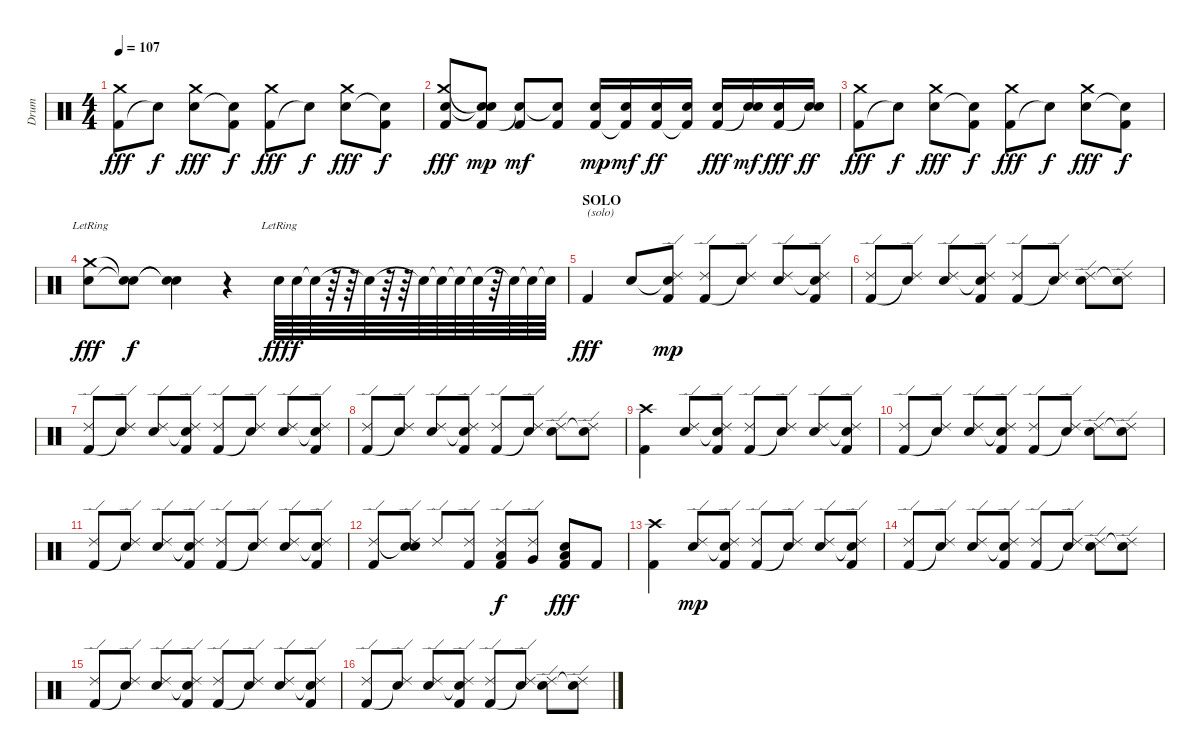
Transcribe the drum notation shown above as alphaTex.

\track ("Drum" "Drum") {instrument percussion}
\staff {score}
\articulation defaults
\ts (4 4)
\tempo 107
\clef neutral
\ks c
("Kick (hit) 2" "Crash medium (hit)").8{dy fff} "Snare (hit)"{t}.8{dy f} ("Electric Snare (hit)" "Crash medium (hit)").8{dy fff} ("Snare (hit)"{t} "Kick (hit) 2").8{dy f} ("Kick (hit) 2" "Crash medium (hit)").8{dy fff} "Snare (hit)"{t}.8{dy f} ("Electric Snare (hit)" "Crash medium (hit)").8{dy fff} ("Snare (hit)"{t} "Kick (hit) 2").8{dy f} |
("Electric Snare (hit)" "Kick (hit) 2" "Crash medium (hit)").8{txt "" dy fff} ("Snare (hit)"{t} "Kick (hit) 2" "Snare (hit)"{t}).8{dy mp} ("Kick (hit) 2" "Snare (hit)"{t}).8{dy mf} ("Kick (hit) 2" "Snare (hit)"{t}).8 ("Electric Snare (hit)" "Kick (hit) 2").16{dy mp} ("Electric Snare (hit)" "Kick (hit) 2"{t}).16{dy mf} ("Electric Snare (hit)" "Kick (hit) 2").16{dy ff} ("Electric Snare (hit)" "Kick (hit) 2"{t}).16 ("Electric Snare (hit)" "Kick (hit) 2").16{dy fff} ("Electric Snare (hit)" "Snare (hit)"{t}).16{dy mf} ("Electric Snare (hit)" "Kick (hit) 2").16{dy fff} ("Electric Snare (hit)" "Snare (hit)"{t}).16{dy ff} |
("Kick (hit) 2" "Crash medium (hit)").8{dy fff} "Snare (hit)"{t}.8{dy f} ("Electric Snare (hit)" "Crash medium (hit)").8{dy fff} ("Snare (hit)"{t} "Kick (hit) 2").8{dy f} ("Kick (hit) 2" "Crash medium (hit)").8{dy fff} "Snare (hit)"{t}.8{dy f} ("Electric Snare (hit)" "Crash medium (hit)").8{dy fff} ("Snare (hit)"{t} "Kick (hit) 2").8{dy f} |
\section ("" "")
("Electric Snare (hit)"{lr} "Crash medium (hit)"{lr}).8{txt "" dy fff} ("Snare (hit)"{t} "Snare (hit)"{t}).8{dy f} ("Snare (hit)"{t} "Snare (hit)"{t}).4 r.4 "Electric Snare (hit)"{lr}.64{dy fff} "Electric Snare (hit)".64{dy f} "Snare (hit)"{t}.64 r.64 r.64 "Snare (hit)"{t}.64 r.64 r.64 "Snare (hit)"{t}.64 "Snare (hit)"{t}.64 "Snare (hit)"{t}.64 "Snare (hit)"{t}.64 r.64 "Snare (hit)"{t}.64 "Snare (hit)"{t}.64 "Snare (hit)"{t}.64 |
\section ("" "SOLO")
"Kick (hit) 2".4{txt "(solo)" dy fff} "Electric Snare (hit)".8 ("Snare (hit)"{t} "Kick (hit) 2" "Ride (edge) 2").8{dy mp} ("Kick (hit) 2" "Ride (edge) 2").8 ("Snare (hit)"{t} "Ride (edge) 2").8 ("Electric Snare (hit)" "Ride (edge) 2").8 ("Snare (hit)"{t} "Kick (hit) 2" "Ride (edge) 2").8 |
("Kick (hit) 2" "Ride (edge) 2").8 ("Snare (hit)"{t} "Ride (edge) 2").8 ("Electric Snare (hit)" "Ride (edge) 2").8 ("Snare (hit)"{t} "Kick (hit) 2" "Ride (edge) 2").8 ("Kick (hit) 2" "Ride (edge) 2").8 ("Snare (hit)"{t} "Ride (edge) 2").8 ("Electric Snare (hit)" "Ride (edge) 2").8 ("Snare (hit)"{t} "Ride (edge) 2").8 |
("Kick (hit) 2" "Ride (edge) 2").8 ("Snare (hit)"{t} "Ride (edge) 2").8 ("Electric Snare (hit)" "Ride (edge) 2").8 ("Snare (hit)"{t} "Kick (hit) 2" "Ride (edge) 2").8 ("Kick (hit) 2" "Ride (edge) 2").8 ("Snare (hit)"{t} "Ride (edge) 2").8 ("Electric Snare (hit)" "Ride (edge) 2").8 ("Snare (hit)"{t} "Kick (hit) 2" "Ride (edge) 2").8 |
("Kick (hit) 2" "Ride (edge) 2").8 ("Snare (hit)"{t} "Ride (edge) 2").8 ("Electric Snare (hit)" "Ride (edge) 2").8 ("Snare (hit)"{t} "Kick (hit) 2" "Ride (edge) 2").8 ("Kick (hit) 2" "Ride (edge) 2").8 ("Snare (hit)"{t} "Ride (edge) 2").8 ("Electric Snare (hit)" "Ride (edge) 2").8 ("Snare (hit)"{t} "Ride (edge) 2").8 |
("Kick (hit) 2" "Crash high (hit)").4 ("Electric Snare (hit)" "Ride (edge) 2").8 ("Snare (hit)"{t} "Kick (hit) 2" "Ride (edge) 2").8 ("Kick (hit) 2" "Ride (edge) 2").8 ("Snare (hit)"{t} "Ride (edge) 2").8 ("Electric Snare (hit)" "Ride (edge) 2").8 ("Snare (hit)"{t} "Kick (hit) 2" "Ride (edge) 2").8 |
("Kick (hit) 2" "Ride (edge) 2").8 ("Snare (hit)"{t} "Ride (edge) 2").8 ("Electric Snare (hit)" "Ride (edge) 2").8 ("Snare (hit)"{t} "Kick (hit) 2" "Ride (edge) 2").8 ("Kick (hit) 2" "Ride (edge) 2").8 ("Snare (hit)"{t} "Ride (edge) 2").8 ("Electric Snare (hit)" "Ride (edge) 2").8 ("Snare (hit)"{t} "Ride (edge) 2").8 |
("Kick (hit) 2" "Ride (edge) 2").8 ("Snare (hit)"{t} "Ride (edge) 2").8 ("Electric Snare (hit)" "Ride (edge) 2").8 ("Snare (hit)"{t} "Kick (hit) 2" "Ride (edge) 2").8 ("Kick (hit) 2" "Ride (edge) 2").8 ("Snare (hit)"{t} "Ride (edge) 2").8 ("Electric Snare (hit)" "Ride (edge) 2").8 ("Snare (hit)"{t} "Kick (hit) 2" "Ride (edge) 2").8 |
("Kick (hit) 2" "Ride (edge) 2").8 ("Electric Snare (hit)" "Snare (hit)"{t} "Ride (edge) 2").8 "Ride (edge) 2".8 ("Kick (hit) 2" "Ride (edge) 2").8 ("Kick (hit) 2" "Ride (edge) 2" "Low Floor Tom (hit)").8{dy f} ("Ride (edge) 2" "Very Low Tom (hit)").8 ("Electric Snare (hit)" "Kick (hit) 2" "Low Floor Tom (hit)").8{dy fff} "Kick (hit) 2".8 |
("Kick (hit) 2" "Crash high (hit)").4 ("Electric Snare (hit)" "Ride (edge) 2").8{dy mp} ("Snare (hit)"{t} "Kick (hit) 2" "Ride (edge) 2").8 ("Kick (hit) 2" "Ride (edge) 2").8 ("Snare (hit)"{t} "Ride (edge) 2").8 ("Electric Snare (hit)" "Ride (edge) 2").8 ("Snare (hit)"{t} "Kick (hit) 2" "Ride (edge) 2").8 |
("Kick (hit) 2" "Ride (edge) 2").8 ("Snare (hit)"{t} "Ride (edge) 2").8 ("Electric Snare (hit)" "Ride (edge) 2").8 ("Snare (hit)"{t} "Kick (hit) 2" "Ride (edge) 2").8 ("Kick (hit) 2" "Ride (edge) 2").8 ("Snare (hit)"{t} "Ride (edge) 2").8 ("Electric Snare (hit)" "Ride (edge) 2").8 ("Snare (hit)"{t} "Ride (edge) 2").8 |
("Kick (hit) 2" "Ride (edge) 2").8 ("Snare (hit)"{t} "Ride (edge) 2").8 ("Electric Snare (hit)" "Ride (edge) 2").8 ("Snare (hit)"{t} "Kick (hit) 2" "Ride (edge) 2").8 ("Kick (hit) 2" "Ride (edge) 2").8 ("Snare (hit)"{t} "Ride (edge) 2").8 ("Electric Snare (hit)" "Ride (edge) 2").8 ("Snare (hit)"{t} "Kick (hit) 2" "Ride (edge) 2").8 |
("Kick (hit) 2" "Ride (edge) 2").8 ("Snare (hit)"{t} "Ride (edge) 2").8 ("Electric Snare (hit)" "Ride (edge) 2").8 ("Snare (hit)"{t} "Kick (hit) 2" "Ride (edge) 2").8 ("Kick (hit) 2" "Ride (edge) 2").8 ("Snare (hit)"{t} "Ride (edge) 2").8 ("Electric Snare (hit)" "Ride (edge) 2").8 ("Snare (hit)"{t} "Ride (edge) 2").8
